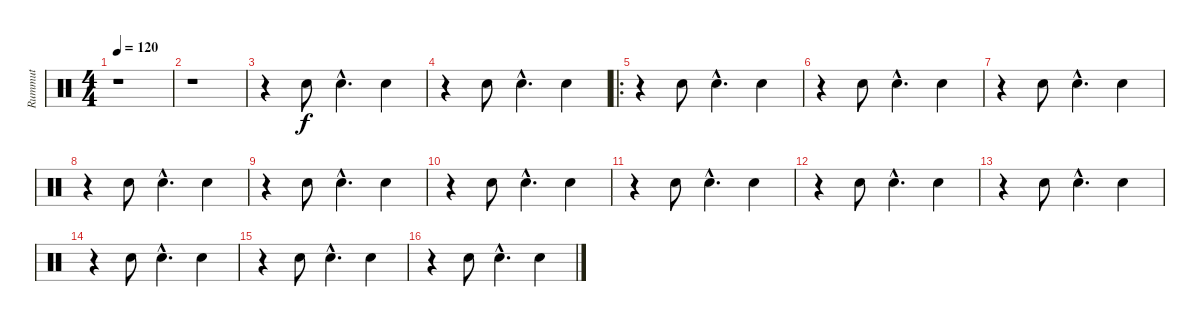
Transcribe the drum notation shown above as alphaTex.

\track ("Rummut" "Rummut") {instrument percussion}
\staff {score}
\articulation defaults
\ts (4 4)
\tempo 120
\clef neutral
\ks c
r.1{dy f} |
r.1 |
r.4 "Snare (hit) 2".8 "Snare (hit) 2"{hac}.4{d} "Snare (hit) 2".4 |
r.4 "Snare (hit) 2".8 "Snare (hit) 2"{hac}.4{d} "Snare (hit) 2".4 |
\ro
r.4 "Snare (hit) 2".8 "Snare (hit) 2"{hac}.4{d} "Snare (hit) 2".4 |
r.4 "Snare (hit) 2".8 "Snare (hit) 2"{hac}.4{d} "Snare (hit) 2".4 |
r.4 "Snare (hit) 2".8 "Snare (hit) 2"{hac}.4{d} "Snare (hit) 2".4 |
r.4 "Snare (hit) 2".8 "Snare (hit) 2"{hac}.4{d} "Snare (hit) 2".4 |
r.4 "Snare (hit) 2".8 "Snare (hit) 2"{hac}.4{d} "Snare (hit) 2".4 |
r.4 "Snare (hit) 2".8 "Snare (hit) 2"{hac}.4{d} "Snare (hit) 2".4 |
r.4 "Snare (hit) 2".8 "Snare (hit) 2"{hac}.4{d} "Snare (hit) 2".4 |
r.4 "Snare (hit) 2".8 "Snare (hit) 2"{hac}.4{d} "Snare (hit) 2".4 |
r.4 "Snare (hit) 2".8 "Snare (hit) 2"{hac}.4{d} "Snare (hit) 2".4 |
r.4 "Snare (hit) 2".8 "Snare (hit) 2"{hac}.4{d} "Snare (hit) 2".4 |
r.4 "Snare (hit) 2".8 "Snare (hit) 2"{hac}.4{d} "Snare (hit) 2".4 |
r.4 "Snare (hit) 2".8 "Snare (hit) 2"{hac}.4{d} "Snare (hit) 2".4
